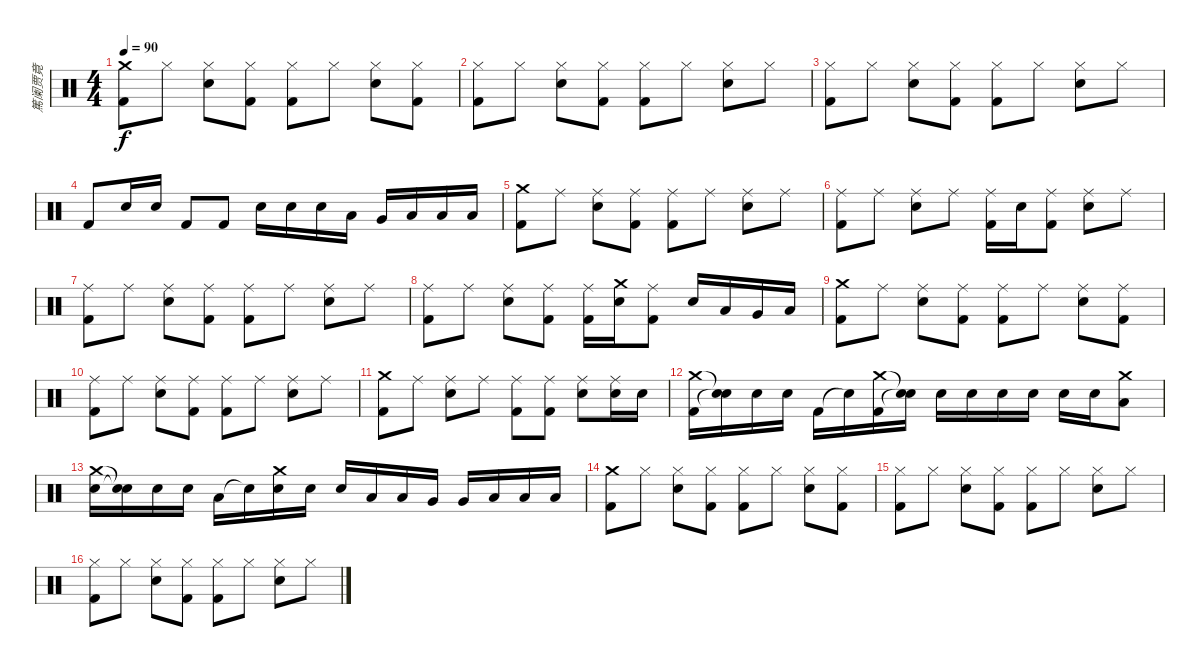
\track ("篤阑贾竟" "篤阑贾竟") {instrument percussion}
\staff {score}
\articulation defaults
\ts (4 4)
\tempo 90
\clef neutral
\ks c
("Crash medium (hit)" "Kick (hit) 2").8{dy f} "Hi-Hat (closed)".8 ("Hi-Hat (closed)" "Snare (hit) 2").8 ("Hi-Hat (closed)" "Kick (hit) 2").8 ("Hi-Hat (closed)" "Kick (hit) 2").8 "Hi-Hat (closed)".8 ("Hi-Hat (closed)" "Snare (hit) 2").8 ("Hi-Hat (closed)" "Kick (hit) 2").8 |
("Hi-Hat (closed)" "Kick (hit) 2").8 "Hi-Hat (closed)".8 ("Hi-Hat (closed)" "Snare (hit) 2").8 ("Hi-Hat (closed)" "Kick (hit) 2").8 ("Hi-Hat (closed)" "Kick (hit) 2").8 "Hi-Hat (closed)".8 ("Hi-Hat (closed)" "Snare (hit) 2").8 "Hi-Hat (closed)".8 |
("Hi-Hat (closed)" "Kick (hit) 2").8 "Hi-Hat (closed)".8 ("Hi-Hat (closed)" "Snare (hit) 2").8 ("Hi-Hat (closed)" "Kick (hit) 2").8 ("Hi-Hat (closed)" "Kick (hit) 2").8 "Hi-Hat (closed)".8 ("Hi-Hat (closed)" "Snare (hit) 2").8 "Hi-Hat (closed)".8 |
"Kick (hit) 2".8 "Snare (hit) 2".16 "Snare (hit) 2".16 "Kick (hit) 2".8 "Kick (hit) 2".8 "Snare (hit) 2".16 "Snare (hit) 2".16 "Snare (hit) 2".16 "Low Tom (hit)".16 "Very Low Tom (hit)".16 "Low Floor Tom (hit)".16 "Low Floor Tom (hit)".16 "Low Floor Tom (hit)".16 |
("Crash medium (hit)" "Kick (hit) 2").8 "Ride (middle)".8 ("Ride (middle)" "Snare (hit) 2").8 ("Ride (middle)" "Kick (hit) 2").8 ("Ride (middle)" "Kick (hit) 2").8 "Ride (middle)".8 ("Ride (middle)" "Snare (hit) 2").8 "Ride (middle)".8 |
("Ride (middle)" "Kick (hit) 2").8 "Ride (middle)".8 ("Ride (middle)" "Snare (hit) 2").8 "Ride (middle)".8 ("Ride (middle)" "Kick (hit) 2").16 "Snare (hit) 2".16 ("Ride (middle)" "Kick (hit) 2").8 ("Ride (middle)" "Snare (hit) 2").8 "Ride (middle)".8 |
("Ride (middle)" "Kick (hit) 2").8 "Ride (middle)".8 ("Ride (middle)" "Snare (hit) 2").8 ("Ride (middle)" "Kick (hit) 2").8 ("Ride (middle)" "Kick (hit) 2").8 "Ride (middle)".8 ("Ride (middle)" "Snare (hit) 2").8 "Ride (middle)".8 |
("Ride (middle)" "Kick (hit) 2").8 "Ride (middle)".8 ("Ride (middle)" "Snare (hit) 2").8 ("Ride (middle)" "Kick (hit) 2").8 ("Ride (middle)" "Kick (hit) 2").16 ("Crash medium (hit)" "Snare (hit) 2").16 ("Ride (middle)" "Kick (hit) 2").8 "Snare (hit) 2".16 "Low Tom (hit)".16 "Very Low Tom (hit)".16 "Low Floor Tom (hit)".16 |
("Crash medium (hit)" "Kick (hit) 2").8 "Ride (middle)".8 ("Ride (middle)" "Snare (hit) 2").8 ("Ride (middle)" "Kick (hit) 2").8 ("Ride (middle)" "Kick (hit) 2").8 "Ride (middle)".8 ("Ride (middle)" "Snare (hit) 2").8 ("Ride (middle)" "Kick (hit) 2").8 |
("Ride (middle)" "Kick (hit) 2").8 "Ride (middle)".8 ("Ride (middle)" "Snare (hit) 2").8 ("Ride (middle)" "Kick (hit) 2").8 ("Ride (middle)" "Kick (hit) 2").8 "Ride (middle)".8 ("Ride (middle)" "Snare (hit) 2").8 "Ride (middle)".8 |
("Crash medium (hit)" "Kick (hit) 2").8 "Ride (middle)".8 ("Ride (middle)" "Snare (hit) 2").8 "Ride (middle)".8 ("Ride (middle)" "Kick (hit) 2").8 ("Ride (middle)" "Kick (hit) 2").8 ("Ride (middle)" "Snare (hit) 2").8 ("Ride (middle)" "Snare (hit) 2").16 "Snare (hit) 2".16 |
("Crash medium (hit)" "Kick (hit) 2").16 ("Snare (hit)"{t} "Snare (hit)"{t}).16 "Snare (hit) 2".16 "Snare (hit) 2".16 "Kick (hit) 2".16 "Snare (hit)"{t}.16 ("Crash medium (hit)" "Kick (hit) 2").16 ("Snare (hit)"{t} "Snare (hit)"{t}).16 "Snare (hit) 2".16 "Snare (hit) 2".16 "Snare (hit) 2".16 "Snare (hit) 2".16 "Snare (hit) 2".16 "Snare (hit) 2".16 ("Crash medium (hit)" "Low Floor Tom (hit)").8 |
("Crash medium (hit)" "Snare (hit) 2").16 ("Snare (hit)"{t} "Snare (hit)"{t}).16 "Snare (hit) 2".16 "Snare (hit) 2".16 "Low Tom (hit)".16 "Snare (hit)"{t}.16 ("Crash medium (hit)" "Snare (hit) 2").16 "Snare (hit) 2".16 "Snare (hit) 2".16 "Low Tom (hit)".16 "Low Tom (hit)".16 "Very Low Tom (hit)".16 "Very Low Tom (hit)".16 "Low Floor Tom (hit)".16 "Low Floor Tom (hit)".16 "Low Floor Tom (hit)".16 |
("Crash medium (hit)" "Kick (hit) 2").8 "Hi-Hat (closed)".8 ("Hi-Hat (closed)" "Snare (hit) 2").8 ("Hi-Hat (closed)" "Kick (hit) 2").8 ("Hi-Hat (closed)" "Kick (hit) 2").8 "Hi-Hat (closed)".8 ("Hi-Hat (closed)" "Snare (hit) 2").8 ("Hi-Hat (closed)" "Kick (hit) 2").8 |
("Hi-Hat (closed)" "Kick (hit) 2").8 "Hi-Hat (closed)".8 ("Hi-Hat (closed)" "Snare (hit) 2").8 ("Hi-Hat (closed)" "Kick (hit) 2").8 ("Hi-Hat (closed)" "Kick (hit) 2").8 "Hi-Hat (closed)".8 ("Hi-Hat (closed)" "Snare (hit) 2").8 "Hi-Hat (closed)".8 |
("Hi-Hat (closed)" "Kick (hit) 2").8 "Hi-Hat (closed)".8 ("Hi-Hat (closed)" "Snare (hit) 2").8 ("Hi-Hat (closed)" "Kick (hit) 2").8 ("Hi-Hat (closed)" "Kick (hit) 2").8 "Hi-Hat (closed)".8 ("Hi-Hat (closed)" "Snare (hit) 2").8 "Hi-Hat (closed)".8
